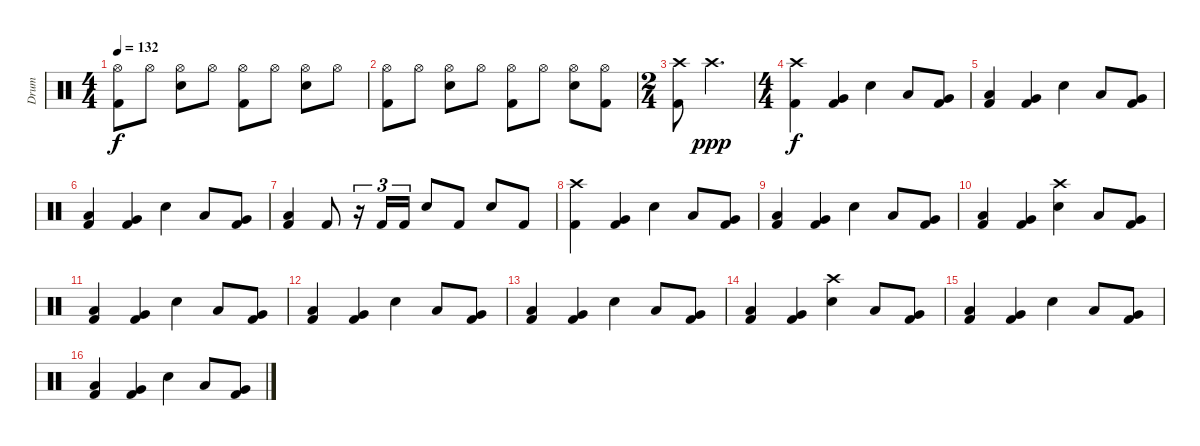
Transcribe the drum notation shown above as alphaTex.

\track ("Drum" "Drum") {instrument percussion}
\staff {score}
\articulation defaults
\ts (4 4)
\tempo 132
\clef neutral
\ks c
("Hi-Hat (open)" "Kick (hit) 2").8{dy f} "Hi-Hat (open)".8 ("Hi-Hat (open)" "Snare (hit) 2").8 "Hi-Hat (open)".8 ("Hi-Hat (open)" "Kick (hit) 2").8 "Hi-Hat (open)".8 ("Hi-Hat (open)" "Snare (hit) 2").8 "Hi-Hat (open)".8 |
("Hi-Hat (open)" "Kick (hit) 2").8 "Hi-Hat (open)".8 ("Hi-Hat (open)" "Snare (hit) 2").8 "Hi-Hat (open)".8 ("Hi-Hat (open)" "Kick (hit) 2").8 "Hi-Hat (open)".8 ("Hi-Hat (open)" "Snare (hit) 2").8 ("Hi-Hat (open)" "Kick (hit) 2").8 |
\ts (2 4)
("Crash high (hit)" "Kick (hit) 2").8 "Crash high (hit)".4{d dy ppp} |
\ts (4 4)
("Crash high (hit)" "Kick (hit) 2").4{dy f} ("Very Low Tom (hit)" "Kick (hit) 2").4 "Snare (hit) 2".4 "Low Tom (hit)".8 ("Very Low Tom (hit)" "Kick (hit) 2").8 |
("Low Floor Tom (hit)" "Kick (hit) 2").4 ("Very Low Tom (hit)" "Kick (hit) 2").4 "Snare (hit) 2".4 "Low Tom (hit)".8 ("Very Low Tom (hit)" "Kick (hit) 2").8 |
("Low Floor Tom (hit)" "Kick (hit) 2").4 ("Very Low Tom (hit)" "Kick (hit) 2").4 "Snare (hit) 2".4 "Low Tom (hit)".8 ("Very Low Tom (hit)" "Kick (hit) 2").8 |
("Low Floor Tom (hit)" "Kick (hit) 2").4 "Kick (hit) 2".8 r.16{tu (3 2)} "Kick (hit) 2".16{tu (3 2)} "Kick (hit) 2".16{tu (3 2)} "Snare (hit) 2".8 "Kick (hit) 2".8 "Snare (hit) 2".8 "Kick (hit) 2".8 |
("Crash high (hit)" "Kick (hit) 2").4 ("Very Low Tom (hit)" "Kick (hit) 2").4 "Snare (hit) 2".4 "Low Tom (hit)".8 ("Very Low Tom (hit)" "Kick (hit) 2").8 |
("Low Floor Tom (hit)" "Kick (hit) 2").4 ("Very Low Tom (hit)" "Kick (hit) 2").4 "Snare (hit) 2".4 "Low Tom (hit)".8 ("Very Low Tom (hit)" "Kick (hit) 2").8 |
("Low Floor Tom (hit)" "Kick (hit) 2").4 ("Very Low Tom (hit)" "Kick (hit) 2").4 ("Crash high (hit)" "Snare (hit) 2").4 "Low Tom (hit)".8 ("Very Low Tom (hit)" "Kick (hit) 2").8 |
("Low Floor Tom (hit)" "Kick (hit) 2").4 ("Very Low Tom (hit)" "Kick (hit) 2").4 "Snare (hit) 2".4 "Low Tom (hit)".8 ("Very Low Tom (hit)" "Kick (hit) 2").8 |
("Low Floor Tom (hit)" "Kick (hit) 2").4 ("Very Low Tom (hit)" "Kick (hit) 2").4 "Snare (hit) 2".4 "Low Tom (hit)".8 ("Very Low Tom (hit)" "Kick (hit) 2").8 |
("Low Floor Tom (hit)" "Kick (hit) 2").4 ("Very Low Tom (hit)" "Kick (hit) 2").4 "Snare (hit) 2".4 "Low Tom (hit)".8 ("Very Low Tom (hit)" "Kick (hit) 2").8 |
("Low Floor Tom (hit)" "Kick (hit) 2").4 ("Very Low Tom (hit)" "Kick (hit) 2").4 ("Crash high (hit)" "Snare (hit) 2").4 "Low Tom (hit)".8 ("Very Low Tom (hit)" "Kick (hit) 2").8 |
("Low Floor Tom (hit)" "Kick (hit) 2").4 ("Very Low Tom (hit)" "Kick (hit) 2").4 "Snare (hit) 2".4 "Low Tom (hit)".8 ("Very Low Tom (hit)" "Kick (hit) 2").8 |
("Low Floor Tom (hit)" "Kick (hit) 2").4 ("Very Low Tom (hit)" "Kick (hit) 2").4 "Snare (hit) 2".4 "Low Tom (hit)".8 ("Very Low Tom (hit)" "Kick (hit) 2").8
